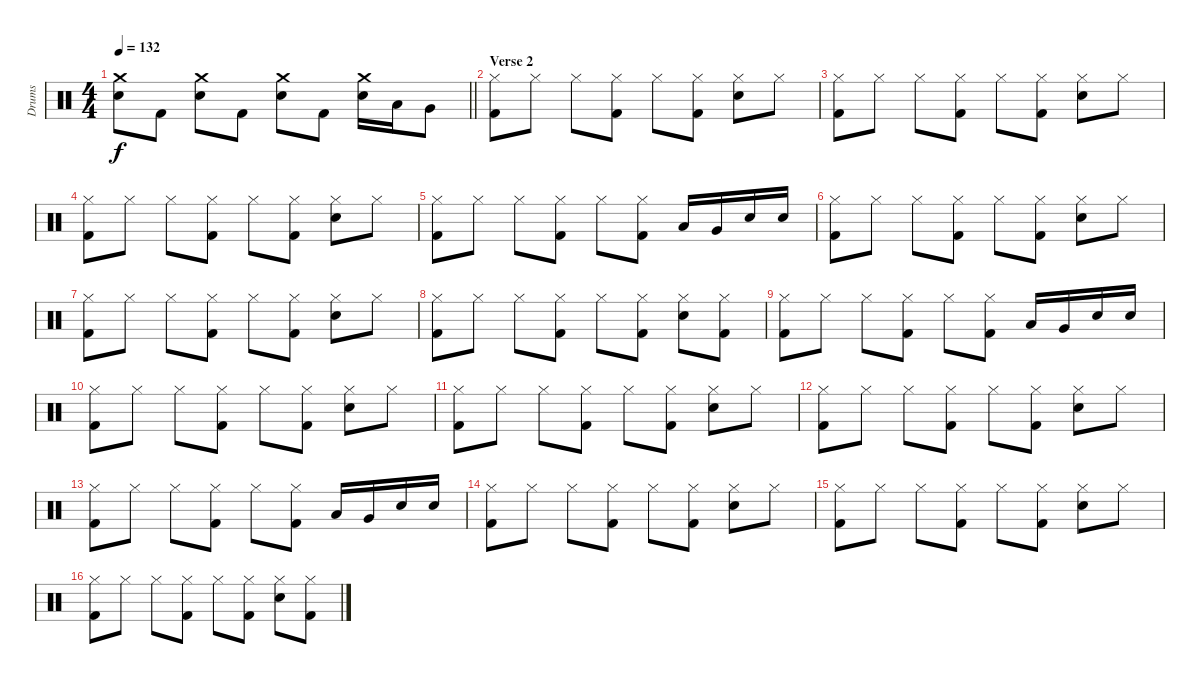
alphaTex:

\track ("Drums" "Drums") {instrument percussion}
\staff {score}
\articulation defaults
\ts (4 4)
\tempo 132
\clef neutral
\barLineRight lightlight
\ks c
("Electric Snare (hit)" "Crash medium (hit)").8{dy f} "Kick (hit) 2".8 ("Electric Snare (hit)" "Crash medium (hit)").8 "Kick (hit) 2".8 ("Electric Snare (hit)" "Crash medium (hit)").8 "Kick (hit) 2".8 ("Electric Snare (hit)" "Crash medium (hit)").16 "Low Tom (hit)".16 "Very Low Tom (hit)".8 |
\section ("" "Verse 2")
("Kick (hit) 2" "Hi-Hat (closed)").8 "Hi-Hat (closed)".8 "Hi-Hat (closed)".8 ("Kick (hit) 2" "Hi-Hat (closed)").8 "Hi-Hat (closed)".8 ("Kick (hit) 2" "Hi-Hat (closed)").8 ("Electric Snare (hit)" "Hi-Hat (closed)").8 "Hi-Hat (closed)".8 |
("Kick (hit) 2" "Hi-Hat (closed)").8 "Hi-Hat (closed)".8 "Hi-Hat (closed)".8 ("Kick (hit) 2" "Hi-Hat (closed)").8 "Hi-Hat (closed)".8 ("Kick (hit) 2" "Hi-Hat (closed)").8 ("Electric Snare (hit)" "Hi-Hat (closed)").8 "Hi-Hat (closed)".8 |
("Kick (hit) 2" "Hi-Hat (closed)").8 "Hi-Hat (closed)".8 "Hi-Hat (closed)".8 ("Kick (hit) 2" "Hi-Hat (closed)").8 "Hi-Hat (closed)".8 ("Kick (hit) 2" "Hi-Hat (closed)").8 ("Electric Snare (hit)" "Hi-Hat (closed)").8 "Hi-Hat (closed)".8 |
("Kick (hit) 2" "Hi-Hat (closed)").8 "Hi-Hat (closed)".8 "Hi-Hat (closed)".8 ("Kick (hit) 2" "Hi-Hat (closed)").8 "Hi-Hat (closed)".8 ("Kick (hit) 2" "Hi-Hat (closed)").8 "Low Tom (hit)".16 "Very Low Tom (hit)".16 "Electric Snare (hit)".16 "Electric Snare (hit)".16 |
("Kick (hit) 2" "Hi-Hat (closed)").8 "Hi-Hat (closed)".8 "Hi-Hat (closed)".8 ("Kick (hit) 2" "Hi-Hat (closed)").8 "Hi-Hat (closed)".8 ("Kick (hit) 2" "Hi-Hat (closed)").8 ("Electric Snare (hit)" "Hi-Hat (closed)").8 "Hi-Hat (closed)".8 |
("Kick (hit) 2" "Hi-Hat (closed)").8 "Hi-Hat (closed)".8 "Hi-Hat (closed)".8 ("Kick (hit) 2" "Hi-Hat (closed)").8 "Hi-Hat (closed)".8 ("Kick (hit) 2" "Hi-Hat (closed)").8 ("Electric Snare (hit)" "Hi-Hat (closed)").8 "Hi-Hat (closed)".8 |
("Kick (hit) 2" "Hi-Hat (closed)").8 "Hi-Hat (closed)".8 "Hi-Hat (closed)".8 ("Kick (hit) 2" "Hi-Hat (closed)").8 "Hi-Hat (closed)".8 ("Kick (hit) 2" "Hi-Hat (closed)").8 ("Electric Snare (hit)" "Hi-Hat (closed)").8 ("Kick (hit) 2" "Hi-Hat (closed)").8 |
("Kick (hit) 2" "Hi-Hat (closed)").8 "Hi-Hat (closed)".8 "Hi-Hat (closed)".8 ("Kick (hit) 2" "Hi-Hat (closed)").8 "Hi-Hat (closed)".8 ("Kick (hit) 2" "Hi-Hat (closed)").8 "Low Tom (hit)".16 "Very Low Tom (hit)".16 "Electric Snare (hit)".16 "Electric Snare (hit)".16 |
("Kick (hit) 2" "Hi-Hat (closed)").8 "Hi-Hat (closed)".8 "Hi-Hat (closed)".8 ("Kick (hit) 2" "Hi-Hat (closed)").8 "Hi-Hat (closed)".8 ("Kick (hit) 2" "Hi-Hat (closed)").8 ("Electric Snare (hit)" "Hi-Hat (closed)").8 "Hi-Hat (closed)".8 |
("Kick (hit) 2" "Hi-Hat (closed)").8 "Hi-Hat (closed)".8 "Hi-Hat (closed)".8 ("Kick (hit) 2" "Hi-Hat (closed)").8 "Hi-Hat (closed)".8 ("Kick (hit) 2" "Hi-Hat (closed)").8 ("Electric Snare (hit)" "Hi-Hat (closed)").8 "Hi-Hat (closed)".8 |
("Kick (hit) 2" "Hi-Hat (closed)").8 "Hi-Hat (closed)".8 "Hi-Hat (closed)".8 ("Kick (hit) 2" "Hi-Hat (closed)").8 "Hi-Hat (closed)".8 ("Kick (hit) 2" "Hi-Hat (closed)").8 ("Electric Snare (hit)" "Hi-Hat (closed)").8 "Hi-Hat (closed)".8 |
("Kick (hit) 2" "Hi-Hat (closed)").8 "Hi-Hat (closed)".8 "Hi-Hat (closed)".8 ("Kick (hit) 2" "Hi-Hat (closed)").8 "Hi-Hat (closed)".8 ("Kick (hit) 2" "Hi-Hat (closed)").8 "Low Tom (hit)".16 "Very Low Tom (hit)".16 "Electric Snare (hit)".16 "Electric Snare (hit)".16 |
("Kick (hit) 2" "Hi-Hat (closed)").8 "Hi-Hat (closed)".8 "Hi-Hat (closed)".8 ("Kick (hit) 2" "Hi-Hat (closed)").8 "Hi-Hat (closed)".8 ("Kick (hit) 2" "Hi-Hat (closed)").8 ("Electric Snare (hit)" "Hi-Hat (closed)").8 "Hi-Hat (closed)".8 |
("Kick (hit) 2" "Hi-Hat (closed)").8 "Hi-Hat (closed)".8 "Hi-Hat (closed)".8 ("Kick (hit) 2" "Hi-Hat (closed)").8 "Hi-Hat (closed)".8 ("Kick (hit) 2" "Hi-Hat (closed)").8 ("Electric Snare (hit)" "Hi-Hat (closed)").8 "Hi-Hat (closed)".8 |
("Kick (hit) 2" "Hi-Hat (closed)").8 "Hi-Hat (closed)".8 "Hi-Hat (closed)".8 ("Kick (hit) 2" "Hi-Hat (closed)").8 "Hi-Hat (closed)".8 ("Kick (hit) 2" "Hi-Hat (closed)").8 ("Electric Snare (hit)" "Hi-Hat (closed)").8 ("Kick (hit) 2" "Hi-Hat (closed)").8
